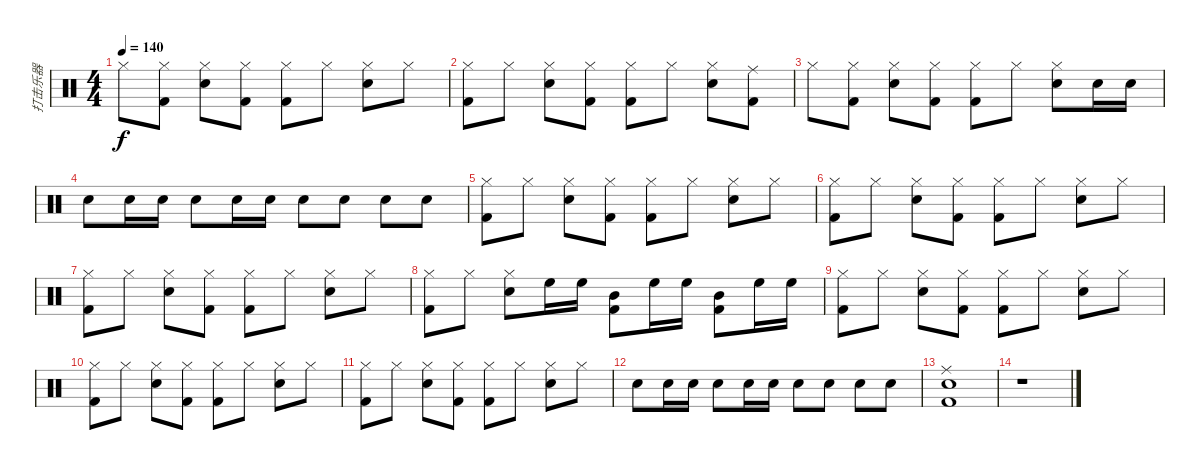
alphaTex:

\track ("打击乐器" "打击乐器") {instrument percussion}
\staff {score}
\articulation defaults
\ts (4 4)
\tempo 140
\clef neutral
\ks c "Hi-Hat (closed)".8{dy f}
("Hi-Hat (closed)" "Kick (hit) 2").8 ("Hi-Hat (closed)" "Snare (hit) 2").8 ("Hi-Hat (closed)" "Kick (hit) 2").8 ("Hi-Hat (closed)" "Kick (hit) 2").8 "Hi-Hat (closed)".8 ("Hi-Hat (closed)" "Snare (hit) 2").8 "Hi-Hat (closed)".8 |
("Hi-Hat (closed)" "Kick (hit) 2").8 "Hi-Hat (closed)".8 ("Hi-Hat (closed)" "Snare (hit) 2").8 ("Hi-Hat (closed)" "Kick (hit) 2").8 ("Hi-Hat (closed)" "Kick (hit) 2").8 "Hi-Hat (closed)".8 ("Hi-Hat (closed)" "Snare (hit) 2").8 ("Ride (middle)" "Kick (hit) 2").8 |
"Hi-Hat (closed)".8 ("Hi-Hat (closed)" "Kick (hit) 2").8 ("Hi-Hat (closed)" "Snare (hit) 2").8 ("Hi-Hat (closed)" "Kick (hit) 2").8 ("Hi-Hat (closed)" "Kick (hit) 2").8 "Hi-Hat (closed)".8 ("Hi-Hat (closed)" "Snare (hit) 2").8 "Snare (hit) 2".16 "Snare (hit) 2".16 |
"Snare (hit) 2".8 "Snare (hit) 2".16 "Snare (hit) 2".16 "Snare (hit) 2".8 "Snare (hit) 2".16 "Snare (hit) 2".16 "Snare (hit) 2".8 "Snare (hit) 2".8 "Snare (hit) 2".8 "Snare (hit) 2".8 |
("Hi-Hat (closed)" "Kick (hit) 2").8 "Hi-Hat (closed)".8 ("Hi-Hat (closed)" "Snare (hit) 2").8 ("Hi-Hat (closed)" "Kick (hit) 2").8 ("Hi-Hat (closed)" "Kick (hit) 2").8 "Hi-Hat (closed)".8 ("Hi-Hat (closed)" "Snare (hit) 2").8 "Hi-Hat (closed)".8 |
("Hi-Hat (closed)" "Kick (hit) 2").8 "Hi-Hat (closed)".8 ("Hi-Hat (closed)" "Snare (hit) 2").8 ("Hi-Hat (closed)" "Kick (hit) 2").8 ("Hi-Hat (closed)" "Kick (hit) 2").8 "Hi-Hat (closed)".8 ("Hi-Hat (closed)" "Snare (hit) 2").8 "Hi-Hat (closed)".8 |
("Hi-Hat (closed)" "Kick (hit) 2").8 "Hi-Hat (closed)".8 ("Hi-Hat (closed)" "Snare (hit) 2").8 ("Hi-Hat (closed)" "Kick (hit) 2").8 ("Hi-Hat (closed)" "Kick (hit) 2").8 "Hi-Hat (closed)".8 ("Hi-Hat (closed)" "Snare (hit) 2").8 "Hi-Hat (closed)".8 |
("Hi-Hat (closed)" "Kick (hit) 2").8 "Hi-Hat (closed)".8 ("Hi-Hat (closed)" "Snare (hit) 2").8 "High Floor Tom (hit)".16 "High Floor Tom (hit)".16 ("Mid Tom (hit)" "Kick (hit) 2").8 "High Floor Tom (hit)".16 "High Floor Tom (hit)".16 ("Mid Tom (hit)" "Kick (hit) 2").8 "High Floor Tom (hit)".16 "High Floor Tom (hit)".16 |
("Hi-Hat (closed)" "Kick (hit) 2").8 "Hi-Hat (closed)".8 ("Hi-Hat (closed)" "Snare (hit) 2").8 ("Hi-Hat (closed)" "Kick (hit) 2").8 ("Hi-Hat (closed)" "Kick (hit) 2").8 "Hi-Hat (closed)".8 ("Hi-Hat (closed)" "Snare (hit) 2").8 "Hi-Hat (closed)".8 |
("Hi-Hat (closed)" "Kick (hit) 2").8 "Hi-Hat (closed)".8 ("Hi-Hat (closed)" "Snare (hit) 2").8 ("Hi-Hat (closed)" "Kick (hit) 2").8 ("Hi-Hat (closed)" "Kick (hit) 2").8 "Hi-Hat (closed)".8 ("Hi-Hat (closed)" "Snare (hit) 2").8 "Hi-Hat (closed)".8 |
("Hi-Hat (closed)" "Kick (hit) 2").8 "Hi-Hat (closed)".8 ("Hi-Hat (closed)" "Snare (hit) 2").8 ("Hi-Hat (closed)" "Kick (hit) 2").8 ("Hi-Hat (closed)" "Kick (hit) 2").8 "Hi-Hat (closed)".8 ("Hi-Hat (closed)" "Snare (hit) 2").8 "Hi-Hat (closed)".8 |
"Snare (hit) 2".8 "Snare (hit) 2".16 "Snare (hit) 2".16 "Snare (hit) 2".8 "Snare (hit) 2".16 "Snare (hit) 2".16 "Snare (hit) 2".8 "Snare (hit) 2".8 "Snare (hit) 2".8 "Snare (hit) 2".8 |
("Ride (middle)" "Snare (hit) 2" "Kick (hit) 2").1 |
r.1
